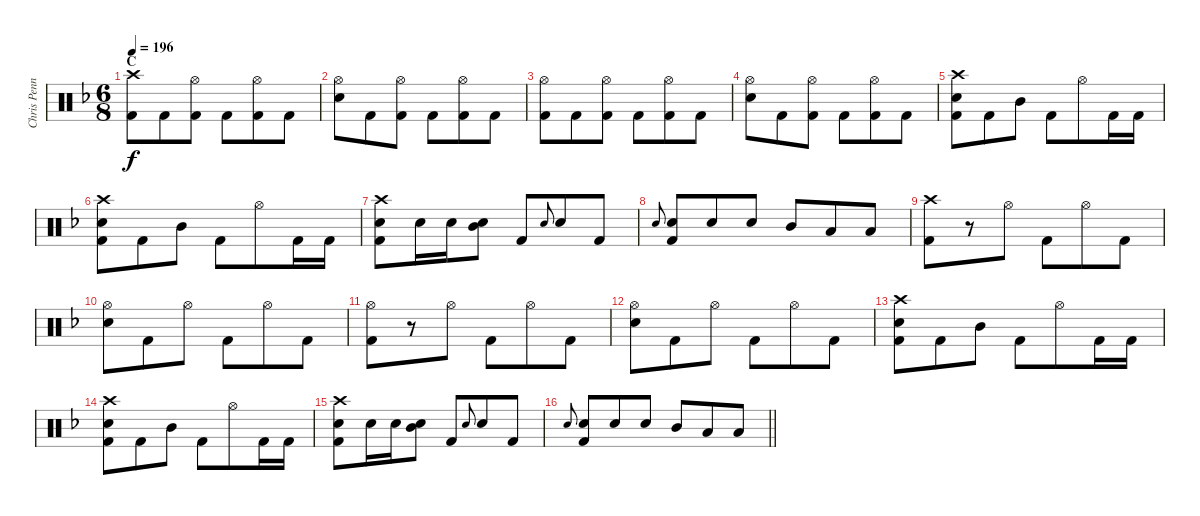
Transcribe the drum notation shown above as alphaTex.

\track ("Chris Pennie/Taylor Hawkins - Drum" "Chris Penn") {instrument percussion}
\staff {score}
\articulation defaults
\ts (6 8)
\section ("" "C")
\tempo 196
\clef neutral
\ks f
("Crash high (hit)" "Kick (hit) 2").8{dy f} "Kick (hit) 2".8 ("Hi-Hat (open)" "Kick (hit) 2").8 "Kick (hit) 2".8 ("Hi-Hat (open)" "Kick (hit) 2").8 "Kick (hit) 2".8 |
("Hi-Hat (open)" "Electric Snare (hit)").8 "Kick (hit) 2".8 ("Hi-Hat (open)" "Kick (hit) 2").8 "Kick (hit) 2".8 ("Hi-Hat (open)" "Kick (hit) 2").8 "Kick (hit) 2".8 |
("Hi-Hat (open)" "Kick (hit) 2").8 "Kick (hit) 2".8 ("Hi-Hat (open)" "Kick (hit) 2").8 "Kick (hit) 2".8 ("Hi-Hat (open)" "Kick (hit) 2").8 "Kick (hit) 2".8 |
("Hi-Hat (open)" "Electric Snare (hit)").8 "Kick (hit) 2".8 ("Hi-Hat (open)" "Kick (hit) 2").8 "Kick (hit) 2".8 ("Hi-Hat (open)" "Kick (hit) 2").8 "Kick (hit) 2".8 |
("Crash high (hit)" "Electric Snare (hit)" "Kick (hit) 2").8 "Kick (hit) 2".8 "Mid Tom (hit)".8 "Kick (hit) 2".8 "Hi-Hat (open)".8 "Kick (hit) 2".16 "Kick (hit) 2".16 |
("Crash high (hit)" "Electric Snare (hit)" "Kick (hit) 2").8 "Kick (hit) 2".8 "Mid Tom (hit)".8 "Kick (hit) 2".8 "Hi-Hat (open)".8 "Kick (hit) 2".16 "Kick (hit) 2".16 |
("Crash high (hit)" "Electric Snare (hit)" "Kick (hit) 2").8 "Electric Snare (hit)".16 "Electric Snare (hit)".16 ("Electric Snare (hit)" "Mid Tom (hit)").8 "Kick (hit) 2".8 "Electric Snare (hit)".8{gr onbeat} "Electric Snare (hit)".8 "Kick (hit) 2".8 |
"Electric Snare (hit)".8{gr onbeat} ("Electric Snare (hit)" "Kick (hit) 2").8 "Electric Snare (hit)".8 "Electric Snare (hit)".8 "Mid Tom (hit)".8 "Low Tom (hit)".8 "Low Floor Tom (hit)".8 |
("Crash high (hit)" "Kick (hit) 2").8 r.8 "Hi-Hat (open)".8 "Kick (hit) 2".8 "Hi-Hat (open)".8 "Kick (hit) 2".8 |
("Hi-Hat (open)" "Electric Snare (hit)").8 "Kick (hit) 2".8 "Hi-Hat (open)".8 "Kick (hit) 2".8 "Hi-Hat (open)".8 "Kick (hit) 2".8 |
("Hi-Hat (open)" "Kick (hit) 2").8 r.8 "Hi-Hat (open)".8 "Kick (hit) 2".8 "Hi-Hat (open)".8 "Kick (hit) 2".8 |
("Hi-Hat (open)" "Electric Snare (hit)").8 "Kick (hit) 2".8 "Hi-Hat (open)".8 "Kick (hit) 2".8 "Hi-Hat (open)".8 "Kick (hit) 2".8 |
("Crash high (hit)" "Electric Snare (hit)" "Kick (hit) 2").8 "Kick (hit) 2".8 "Mid Tom (hit)".8 "Kick (hit) 2".8 "Hi-Hat (open)".8 "Kick (hit) 2".16 "Kick (hit) 2".16 |
("Crash high (hit)" "Electric Snare (hit)" "Kick (hit) 2").8 "Kick (hit) 2".8 "Mid Tom (hit)".8 "Kick (hit) 2".8 "Hi-Hat (open)".8 "Kick (hit) 2".16 "Kick (hit) 2".16 |
("Crash high (hit)" "Electric Snare (hit)" "Kick (hit) 2").8 "Electric Snare (hit)".16 "Electric Snare (hit)".16 ("Electric Snare (hit)" "Mid Tom (hit)").8 "Kick (hit) 2".8 "Electric Snare (hit)".8{gr onbeat} "Electric Snare (hit)".8 "Kick (hit) 2".8 |
\barLineRight lightlight "Electric Snare (hit)".8{gr onbeat}
("Electric Snare (hit)" "Kick (hit) 2").8 "Electric Snare (hit)".8 "Electric Snare (hit)".8 "Mid Tom (hit)".8 "Low Tom (hit)".8 "Low Floor Tom (hit)".8
